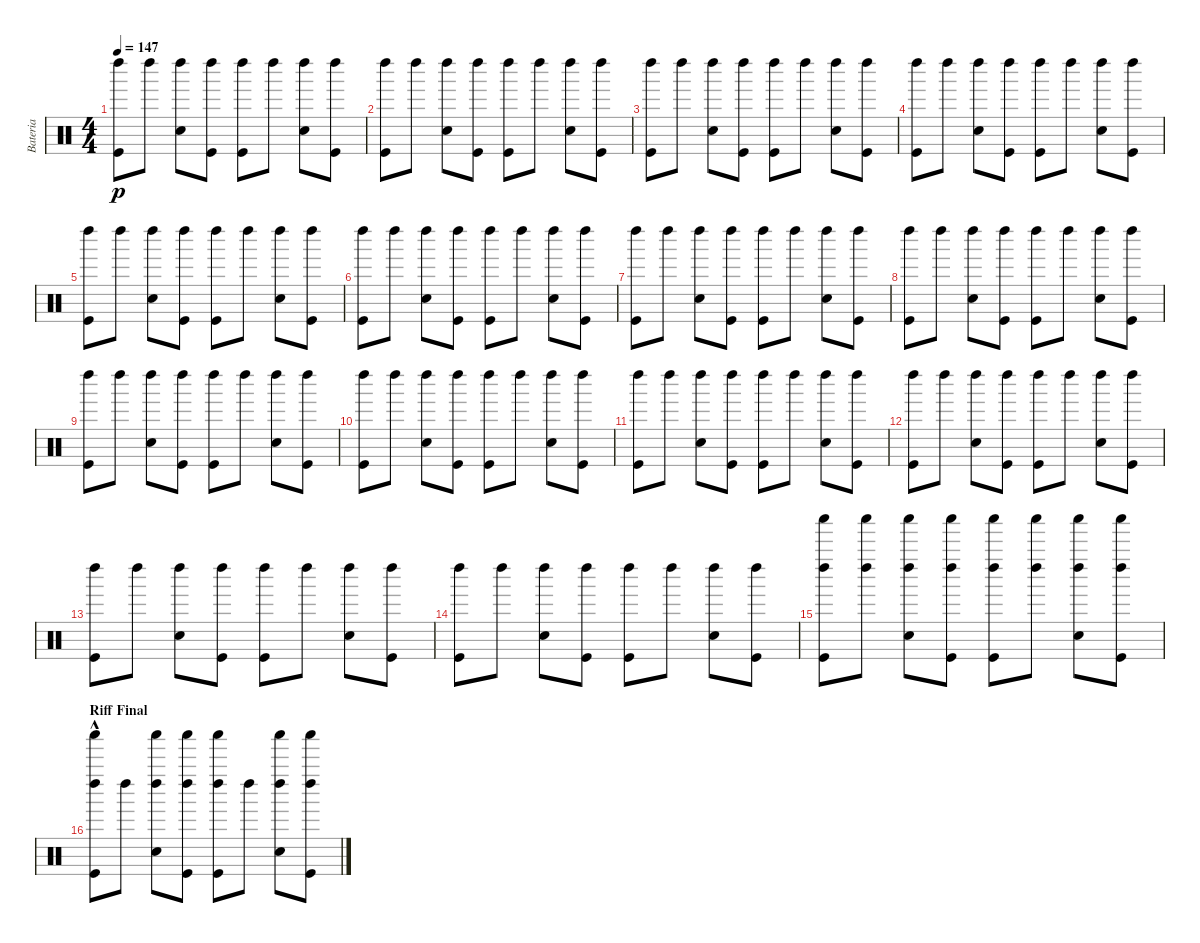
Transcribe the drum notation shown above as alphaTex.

\track ("Bateria" "Bateria") {instrument percussion}
\staff {score}
\articulation defaults
\ts (4 4)
\tempo 147
\clef neutral
\ks c
("Left Maraca (hit)" "Kick (hit)").8{dy p} "Left Maraca (hit)".8 ("Snare (hit) 2" "Left Maraca (hit)").8 ("Left Maraca (hit)" "Kick (hit)").8 ("Left Maraca (hit)" "Kick (hit)").8 "Left Maraca (hit)".8 ("Snare (hit) 2" "Left Maraca (hit)").8 ("Kick (hit)" "Left Maraca (hit)").8 |
("Kick (hit)" "Left Maraca (hit)").8 "Left Maraca (hit)".8 ("Snare (hit) 2" "Left Maraca (hit)").8 ("Left Maraca (hit)" "Kick (hit)").8 ("Left Maraca (hit)" "Kick (hit)").8 "Left Maraca (hit)".8 ("Snare (hit) 2" "Left Maraca (hit)").8 ("Kick (hit)" "Left Maraca (hit)").8 |
("Left Maraca (hit)" "Kick (hit)").8 "Left Maraca (hit)".8 ("Snare (hit) 2" "Left Maraca (hit)").8 ("Left Maraca (hit)" "Kick (hit)").8 ("Left Maraca (hit)" "Kick (hit)").8 "Left Maraca (hit)".8 ("Snare (hit) 2" "Left Maraca (hit)").8 ("Kick (hit)" "Left Maraca (hit)").8 |
("Kick (hit)" "Left Maraca (hit)").8 "Left Maraca (hit)".8 ("Snare (hit) 2" "Left Maraca (hit)").8 ("Left Maraca (hit)" "Kick (hit)").8 ("Left Maraca (hit)" "Kick (hit)").8 "Left Maraca (hit)".8 ("Snare (hit) 2" "Left Maraca (hit)").8 ("Kick (hit)" "Left Maraca (hit)").8 |
("Left Maraca (hit)" "Kick (hit)").8 "Left Maraca (hit)".8 ("Snare (hit) 2" "Left Maraca (hit)").8 ("Left Maraca (hit)" "Kick (hit)").8 ("Left Maraca (hit)" "Kick (hit)").8 "Left Maraca (hit)".8 ("Snare (hit) 2" "Left Maraca (hit)").8 ("Kick (hit)" "Left Maraca (hit)").8 |
("Kick (hit)" "Left Maraca (hit)").8 "Left Maraca (hit)".8 ("Snare (hit) 2" "Left Maraca (hit)").8 ("Left Maraca (hit)" "Kick (hit)").8 ("Left Maraca (hit)" "Kick (hit)").8 "Left Maraca (hit)".8 ("Snare (hit) 2" "Left Maraca (hit)").8 ("Kick (hit)" "Left Maraca (hit)").8 |
("Left Maraca (hit)" "Kick (hit)").8 "Left Maraca (hit)".8 ("Snare (hit) 2" "Left Maraca (hit)").8 ("Left Maraca (hit)" "Kick (hit)").8 ("Left Maraca (hit)" "Kick (hit)").8 "Left Maraca (hit)".8 ("Snare (hit) 2" "Left Maraca (hit)").8 ("Kick (hit)" "Left Maraca (hit)").8 |
("Kick (hit)" "Left Maraca (hit)").8 "Left Maraca (hit)".8 ("Snare (hit) 2" "Left Maraca (hit)").8 ("Left Maraca (hit)" "Kick (hit)").8 ("Left Maraca (hit)" "Kick (hit)").8 "Left Maraca (hit)".8 ("Snare (hit) 2" "Left Maraca (hit)").8 ("Kick (hit)" "Left Maraca (hit)").8 |
("Left Maraca (hit)" "Kick (hit)").8 "Left Maraca (hit)".8 ("Snare (hit) 2" "Left Maraca (hit)").8 ("Left Maraca (hit)" "Kick (hit)").8 ("Left Maraca (hit)" "Kick (hit)").8 "Left Maraca (hit)".8 ("Snare (hit) 2" "Left Maraca (hit)").8 ("Kick (hit)" "Left Maraca (hit)").8 |
("Kick (hit)" "Left Maraca (hit)").8 "Left Maraca (hit)".8 ("Snare (hit) 2" "Left Maraca (hit)").8 ("Left Maraca (hit)" "Kick (hit)").8 ("Left Maraca (hit)" "Kick (hit)").8 "Left Maraca (hit)".8 ("Snare (hit) 2" "Left Maraca (hit)").8 ("Kick (hit)" "Left Maraca (hit)").8 |
("Left Maraca (hit)" "Kick (hit)").8 "Left Maraca (hit)".8 ("Snare (hit) 2" "Left Maraca (hit)").8 ("Left Maraca (hit)" "Kick (hit)").8 ("Left Maraca (hit)" "Kick (hit)").8 "Left Maraca (hit)".8 ("Snare (hit) 2" "Left Maraca (hit)").8 ("Kick (hit)" "Left Maraca (hit)").8 |
("Kick (hit)" "Left Maraca (hit)").8 "Left Maraca (hit)".8 ("Snare (hit) 2" "Left Maraca (hit)").8 ("Left Maraca (hit)" "Kick (hit)").8 ("Left Maraca (hit)" "Kick (hit)").8 "Left Maraca (hit)".8 ("Snare (hit) 2" "Left Maraca (hit)").8 ("Kick (hit)" "Left Maraca (hit)").8 |
("Left Maraca (hit)" "Kick (hit)").8 "Left Maraca (hit)".8 ("Snare (hit) 2" "Left Maraca (hit)").8 ("Left Maraca (hit)" "Kick (hit)").8 ("Left Maraca (hit)" "Kick (hit)").8 "Left Maraca (hit)".8 ("Snare (hit) 2" "Left Maraca (hit)").8 ("Kick (hit)" "Left Maraca (hit)").8 |
("Kick (hit)" "Left Maraca (hit)").8 "Left Maraca (hit)".8 ("Snare (hit) 2" "Left Maraca (hit)").8 ("Left Maraca (hit)" "Kick (hit)").8 ("Left Maraca (hit)" "Kick (hit)").8 "Left Maraca (hit)".8 ("Snare (hit) 2" "Left Maraca (hit)").8 ("Kick (hit)" "Left Maraca (hit)").8 |
("Shaker (hit)" "Left Maraca (hit)" "Kick (hit)").8 ("Shaker (hit)" "Left Maraca (hit)").8 ("Shaker (hit)" "Snare (hit) 2" "Left Maraca (hit)").8 ("Shaker (hit)" "Left Maraca (hit)" "Kick (hit)").8 ("Shaker (hit)" "Left Maraca (hit)" "Kick (hit)").8 ("Shaker (hit)" "Left Maraca (hit)").8 ("Shaker (hit)" "Snare (hit) 2" "Left Maraca (hit)").8 ("Shaker (hit)" "Kick (hit)" "Left Maraca (hit)").8 |
\section ("" "Riff Final")
("Shaker (hit)"{hac} "Kick (hit)" "Left Maraca (hit)").8 "Left Maraca (hit)".8 ("Shaker (hit)" "Snare (hit) 2" "Left Maraca (hit)").8 ("Shaker (hit)" "Left Maraca (hit)" "Kick (hit)").8 ("Shaker (hit)" "Left Maraca (hit)" "Kick (hit)").8 "Left Maraca (hit)".8 ("Shaker (hit)" "Snare (hit) 2" "Left Maraca (hit)").8 ("Shaker (hit)" "Kick (hit)" "Left Maraca (hit)").8
